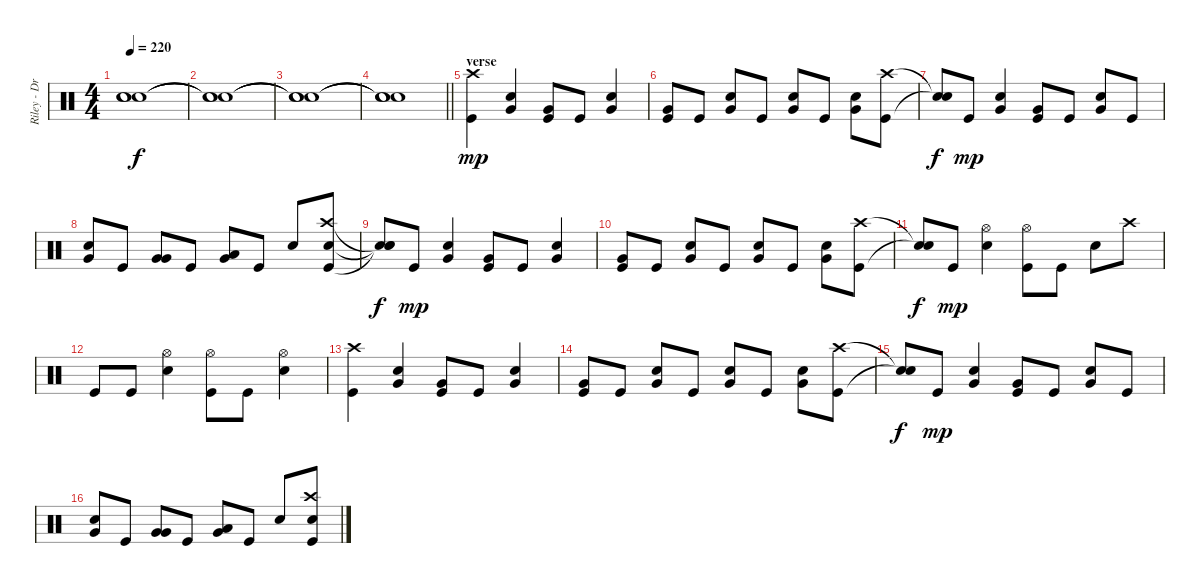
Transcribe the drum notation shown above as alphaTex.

\track ("Riley - Drums" "Riley - Dr") {instrument percussion}
\staff {score}
\articulation defaults
\ts (4 4)
\tempo 220
\clef neutral
\ks c
("Snare (hit)"{t} "Snare (hit)"{t} "Snare (hit)"{t}).1{dy f} |
("Snare (hit)"{t} "Snare (hit)"{t} "Snare (hit)"{t}).1 |
("Snare (hit)"{t} "Snare (hit)"{t} "Snare (hit)"{t}).1 |
\barLineRight lightlight
("Snare (hit)"{t} "Snare (hit)"{t} "Snare (hit)"{t}).1 |
\section ("" "verse")
("Kick (hit)" "Crash high (hit)").4{dy mp} ("Electric Snare (hit)" "Very Low Tom (hit)").4 ("Kick (hit)" "Very Low Tom (hit)").8 "Kick (hit)".8 ("Electric Snare (hit)" "Very Low Tom (hit)").4 |
("Kick (hit)" "Very Low Tom (hit)").8 "Kick (hit)".8 ("Electric Snare (hit)" "Very Low Tom (hit)").8 "Kick (hit)".8 ("Electric Snare (hit)" "Very Low Tom (hit)").8 "Kick (hit)".8 ("Electric Snare (hit)" "Very Low Tom (hit)").8 ("Kick (hit)" "Crash high (hit)").8 |
("Snare (hit)"{t} "Snare (hit)"{t}).8{dy f} "Kick (hit)".8{dy mp} ("Electric Snare (hit)" "Very Low Tom (hit)").4 ("Kick (hit)" "Very Low Tom (hit)").8 "Kick (hit)".8 ("Electric Snare (hit)" "Very Low Tom (hit)").8 "Kick (hit)".8 |
("Electric Snare (hit)" "Very Low Tom (hit)").8 "Kick (hit)".8 ("Very Low Tom (hit)" "Very Low Tom (hit)").8 "Kick (hit)".8 ("Low Floor Tom (hit)" "Very Low Tom (hit)").8 "Kick (hit)".8 "Electric Snare (hit)".8 ("Kick (hit)" "Electric Snare (hit)" "Crash high (hit)").8 |
("Snare (hit)"{t} "Snare (hit)"{t} "Snare (hit)"{t}).8{dy f} "Kick (hit)".8{dy mp} ("Electric Snare (hit)" "Very Low Tom (hit)").4 ("Kick (hit)" "Very Low Tom (hit)").8 "Kick (hit)".8 ("Electric Snare (hit)" "Very Low Tom (hit)").4 |
("Kick (hit)" "Very Low Tom (hit)").8 "Kick (hit)".8 ("Electric Snare (hit)" "Very Low Tom (hit)").8 "Kick (hit)".8 ("Electric Snare (hit)" "Very Low Tom (hit)").8 "Kick (hit)".8 ("Electric Snare (hit)" "Very Low Tom (hit)").8 ("Kick (hit)" "Crash high (hit)").8 |
("Snare (hit)"{t} "Snare (hit)"{t}).8{dy f} "Kick (hit)".8{dy mp} ("Electric Snare (hit)" "Hi-Hat (open)").4 ("Kick (hit)" "Hi-Hat (open)").8 "Kick (hit)".8 "Electric Snare (hit)".8 "Crash high (hit)".8 |
"Kick (hit)".8 "Kick (hit)".8 ("Electric Snare (hit)" "Hi-Hat (open)").4 ("Kick (hit)" "Hi-Hat (open)").8 "Kick (hit)".8 ("Electric Snare (hit)" "Hi-Hat (open)").4 |
("Kick (hit)" "Crash high (hit)").4 ("Electric Snare (hit)" "Very Low Tom (hit)").4 ("Kick (hit)" "Very Low Tom (hit)").8 "Kick (hit)".8 ("Electric Snare (hit)" "Very Low Tom (hit)").4 |
("Kick (hit)" "Very Low Tom (hit)").8 "Kick (hit)".8 ("Electric Snare (hit)" "Very Low Tom (hit)").8 "Kick (hit)".8 ("Electric Snare (hit)" "Very Low Tom (hit)").8 "Kick (hit)".8 ("Electric Snare (hit)" "Very Low Tom (hit)").8 ("Kick (hit)" "Crash high (hit)").8 |
("Snare (hit)"{t} "Snare (hit)"{t}).8{dy f} "Kick (hit)".8{dy mp} ("Electric Snare (hit)" "Very Low Tom (hit)").4 ("Kick (hit)" "Very Low Tom (hit)").8 "Kick (hit)".8 ("Electric Snare (hit)" "Very Low Tom (hit)").8 "Kick (hit)".8 |
("Electric Snare (hit)" "Very Low Tom (hit)").8 "Kick (hit)".8 ("Very Low Tom (hit)" "Very Low Tom (hit)").8 "Kick (hit)".8 ("Low Floor Tom (hit)" "Very Low Tom (hit)").8 "Kick (hit)".8 "Electric Snare (hit)".8 ("Kick (hit)" "Electric Snare (hit)" "Crash high (hit)").8
